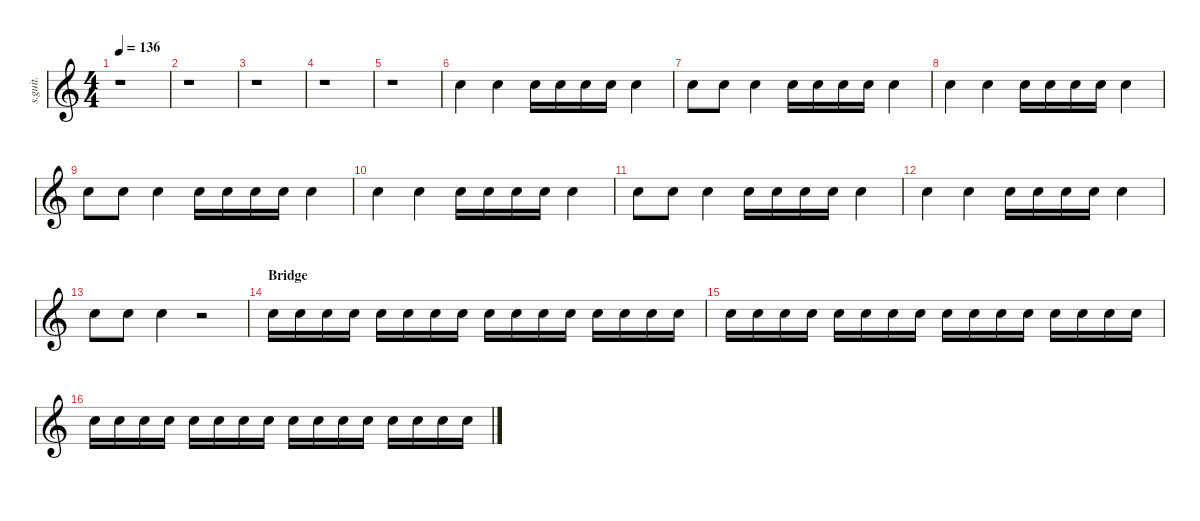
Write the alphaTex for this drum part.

\defaultSystemsLayout 4
\hideDynamics
\bracketExtendMode nobrackets
\track ("Chris Fehn" "s.guit.") {instrument percussion}
\staff {score}
\articulation defaults
\ts (4 4)
\tempo 136
\clef g2
\ks c
r.1{dy fff} |
r.1 |
r.1 |
r.1 |
r.1 |
"Snare (hit) 2".4{lyrics (0 "") lyrics (1 "") lyrics (2 "") lyrics (3 "") lyrics (4 "") dy mf} "Snare (hit) 2".4{lyrics (0 "") lyrics (1 "") lyrics (2 "") lyrics (3 "") lyrics (4 "")} "Snare (hit) 2".16{lyrics (0 "") lyrics (1 "") lyrics (2 "") lyrics (3 "") lyrics (4 "")} "Snare (hit) 2".16{lyrics (0 "") lyrics (1 "") lyrics (2 "") lyrics (3 "") lyrics (4 "")} "Snare (hit) 2".16{lyrics (0 "") lyrics (1 "") lyrics (2 "") lyrics (3 "") lyrics (4 "")} "Snare (hit) 2".16{lyrics (0 "") lyrics (1 "") lyrics (2 "") lyrics (3 "") lyrics (4 "")} "Snare (hit) 2".4{lyrics (0 "") lyrics (1 "") lyrics (2 "") lyrics (3 "") lyrics (4 "")} |
"Snare (hit) 2".8{lyrics (0 "") lyrics (1 "") lyrics (2 "") lyrics (3 "") lyrics (4 "")} "Snare (hit) 2".8{lyrics (0 "") lyrics (1 "") lyrics (2 "") lyrics (3 "") lyrics (4 "")} "Snare (hit) 2".4{lyrics (0 "") lyrics (1 "") lyrics (2 "") lyrics (3 "") lyrics (4 "")} "Snare (hit) 2".16{lyrics (0 "") lyrics (1 "") lyrics (2 "") lyrics (3 "") lyrics (4 "")} "Snare (hit) 2".16{lyrics (0 "") lyrics (1 "") lyrics (2 "") lyrics (3 "") lyrics (4 "")} "Snare (hit) 2".16{lyrics (0 "") lyrics (1 "") lyrics (2 "") lyrics (3 "") lyrics (4 "")} "Snare (hit) 2".16{lyrics (0 "") lyrics (1 "") lyrics (2 "") lyrics (3 "") lyrics (4 "")} "Snare (hit) 2".4{lyrics (0 "") lyrics (1 "") lyrics (2 "") lyrics (3 "") lyrics (4 "")} |
"Snare (hit) 2".4{lyrics (0 "") lyrics (1 "") lyrics (2 "") lyrics (3 "") lyrics (4 "")} "Snare (hit) 2".4{lyrics (0 "") lyrics (1 "") lyrics (2 "") lyrics (3 "") lyrics (4 "")} "Snare (hit) 2".16{lyrics (0 "") lyrics (1 "") lyrics (2 "") lyrics (3 "") lyrics (4 "")} "Snare (hit) 2".16{lyrics (0 "") lyrics (1 "") lyrics (2 "") lyrics (3 "") lyrics (4 "")} "Snare (hit) 2".16{lyrics (0 "") lyrics (1 "") lyrics (2 "") lyrics (3 "") lyrics (4 "")} "Snare (hit) 2".16{lyrics (0 "") lyrics (1 "") lyrics (2 "") lyrics (3 "") lyrics (4 "")} "Snare (hit) 2".4{lyrics (0 "") lyrics (1 "") lyrics (2 "") lyrics (3 "") lyrics (4 "")} |
"Snare (hit) 2".8{lyrics (0 "") lyrics (1 "") lyrics (2 "") lyrics (3 "") lyrics (4 "")} "Snare (hit) 2".8{lyrics (0 "") lyrics (1 "") lyrics (2 "") lyrics (3 "") lyrics (4 "")} "Snare (hit) 2".4{lyrics (0 "") lyrics (1 "") lyrics (2 "") lyrics (3 "") lyrics (4 "")} "Snare (hit) 2".16{lyrics (0 "") lyrics (1 "") lyrics (2 "") lyrics (3 "") lyrics (4 "")} "Snare (hit) 2".16{lyrics (0 "") lyrics (1 "") lyrics (2 "") lyrics (3 "") lyrics (4 "")} "Snare (hit) 2".16{lyrics (0 "") lyrics (1 "") lyrics (2 "") lyrics (3 "") lyrics (4 "")} "Snare (hit) 2".16{lyrics (0 "") lyrics (1 "") lyrics (2 "") lyrics (3 "") lyrics (4 "")} "Snare (hit) 2".4{lyrics (0 "") lyrics (1 "") lyrics (2 "") lyrics (3 "") lyrics (4 "")} |
"Snare (hit) 2".4{lyrics (0 "") lyrics (1 "") lyrics (2 "") lyrics (3 "") lyrics (4 "")} "Snare (hit) 2".4{lyrics (0 "") lyrics (1 "") lyrics (2 "") lyrics (3 "") lyrics (4 "")} "Snare (hit) 2".16{lyrics (0 "") lyrics (1 "") lyrics (2 "") lyrics (3 "") lyrics (4 "")} "Snare (hit) 2".16{lyrics (0 "") lyrics (1 "") lyrics (2 "") lyrics (3 "") lyrics (4 "")} "Snare (hit) 2".16{lyrics (0 "") lyrics (1 "") lyrics (2 "") lyrics (3 "") lyrics (4 "")} "Snare (hit) 2".16{lyrics (0 "") lyrics (1 "") lyrics (2 "") lyrics (3 "") lyrics (4 "")} "Snare (hit) 2".4{lyrics (0 "") lyrics (1 "") lyrics (2 "") lyrics (3 "") lyrics (4 "")} |
"Snare (hit) 2".8{lyrics (0 "") lyrics (1 "") lyrics (2 "") lyrics (3 "") lyrics (4 "")} "Snare (hit) 2".8{lyrics (0 "") lyrics (1 "") lyrics (2 "") lyrics (3 "") lyrics (4 "")} "Snare (hit) 2".4{lyrics (0 "") lyrics (1 "") lyrics (2 "") lyrics (3 "") lyrics (4 "")} "Snare (hit) 2".16{lyrics (0 "") lyrics (1 "") lyrics (2 "") lyrics (3 "") lyrics (4 "")} "Snare (hit) 2".16{lyrics (0 "") lyrics (1 "") lyrics (2 "") lyrics (3 "") lyrics (4 "")} "Snare (hit) 2".16{lyrics (0 "") lyrics (1 "") lyrics (2 "") lyrics (3 "") lyrics (4 "")} "Snare (hit) 2".16{lyrics (0 "") lyrics (1 "") lyrics (2 "") lyrics (3 "") lyrics (4 "")} "Snare (hit) 2".4{lyrics (0 "") lyrics (1 "") lyrics (2 "") lyrics (3 "") lyrics (4 "")} |
"Snare (hit) 2".4{lyrics (0 "") lyrics (1 "") lyrics (2 "") lyrics (3 "") lyrics (4 "")} "Snare (hit) 2".4{lyrics (0 "") lyrics (1 "") lyrics (2 "") lyrics (3 "") lyrics (4 "")} "Snare (hit) 2".16{lyrics (0 "") lyrics (1 "") lyrics (2 "") lyrics (3 "") lyrics (4 "")} "Snare (hit) 2".16{lyrics (0 "") lyrics (1 "") lyrics (2 "") lyrics (3 "") lyrics (4 "")} "Snare (hit) 2".16{lyrics (0 "") lyrics (1 "") lyrics (2 "") lyrics (3 "") lyrics (4 "")} "Snare (hit) 2".16{lyrics (0 "") lyrics (1 "") lyrics (2 "") lyrics (3 "") lyrics (4 "")} "Snare (hit) 2".4{lyrics (0 "") lyrics (1 "") lyrics (2 "") lyrics (3 "") lyrics (4 "")} |
"Snare (hit) 2".8{lyrics (0 "") lyrics (1 "") lyrics (2 "") lyrics (3 "") lyrics (4 "")} "Snare (hit) 2".8{lyrics (0 "") lyrics (1 "") lyrics (2 "") lyrics (3 "") lyrics (4 "")} "Snare (hit) 2".4{lyrics (0 "") lyrics (1 "") lyrics (2 "") lyrics (3 "") lyrics (4 "")} r.2 |
\section ("" "Bridge")
"Snare (hit) 2".16{lyrics (0 "") lyrics (1 "") lyrics (2 "") lyrics (3 "") lyrics (4 "") dy mp} "Snare (hit) 2".16{lyrics (0 "") lyrics (1 "") lyrics (2 "") lyrics (3 "") lyrics (4 "")} "Snare (hit) 2".16{lyrics (0 "") lyrics (1 "") lyrics (2 "") lyrics (3 "") lyrics (4 "")} "Snare (hit) 2".16{lyrics (0 "") lyrics (1 "") lyrics (2 "") lyrics (3 "") lyrics (4 "")} "Snare (hit) 2".16{lyrics (0 "") lyrics (1 "") lyrics (2 "") lyrics (3 "") lyrics (4 "")} "Snare (hit) 2".16{lyrics (0 "") lyrics (1 "") lyrics (2 "") lyrics (3 "") lyrics (4 "")} "Snare (hit) 2".16{lyrics (0 "") lyrics (1 "") lyrics (2 "") lyrics (3 "") lyrics (4 "")} "Snare (hit) 2".16{lyrics (0 "") lyrics (1 "") lyrics (2 "") lyrics (3 "") lyrics (4 "")} "Snare (hit) 2".16{lyrics (0 "") lyrics (1 "") lyrics (2 "") lyrics (3 "") lyrics (4 "")} "Snare (hit) 2".16{lyrics (0 "") lyrics (1 "") lyrics (2 "") lyrics (3 "") lyrics (4 "")} "Snare (hit) 2".16{lyrics (0 "") lyrics (1 "") lyrics (2 "") lyrics (3 "") lyrics (4 "")} "Snare (hit) 2".16{lyrics (0 "") lyrics (1 "") lyrics (2 "") lyrics (3 "") lyrics (4 "")} "Snare (hit) 2".16{lyrics (0 "") lyrics (1 "") lyrics (2 "") lyrics (3 "") lyrics (4 "")} "Snare (hit) 2".16{lyrics (0 "") lyrics (1 "") lyrics (2 "") lyrics (3 "") lyrics (4 "")} "Snare (hit) 2".16{lyrics (0 "") lyrics (1 "") lyrics (2 "") lyrics (3 "") lyrics (4 "")} "Snare (hit) 2".16{lyrics (0 "") lyrics (1 "") lyrics (2 "") lyrics (3 "") lyrics (4 "")} |
"Snare (hit) 2".16{lyrics (0 "") lyrics (1 "") lyrics (2 "") lyrics (3 "") lyrics (4 "")} "Snare (hit) 2".16{lyrics (0 "") lyrics (1 "") lyrics (2 "") lyrics (3 "") lyrics (4 "")} "Snare (hit) 2".16{lyrics (0 "") lyrics (1 "") lyrics (2 "") lyrics (3 "") lyrics (4 "")} "Snare (hit) 2".16{lyrics (0 "") lyrics (1 "") lyrics (2 "") lyrics (3 "") lyrics (4 "")} "Snare (hit) 2".16{lyrics (0 "") lyrics (1 "") lyrics (2 "") lyrics (3 "") lyrics (4 "")} "Snare (hit) 2".16{lyrics (0 "") lyrics (1 "") lyrics (2 "") lyrics (3 "") lyrics (4 "")} "Snare (hit) 2".16{lyrics (0 "") lyrics (1 "") lyrics (2 "") lyrics (3 "") lyrics (4 "")} "Snare (hit) 2".16{lyrics (0 "") lyrics (1 "") lyrics (2 "") lyrics (3 "") lyrics (4 "")} "Snare (hit) 2".16{lyrics (0 "") lyrics (1 "") lyrics (2 "") lyrics (3 "") lyrics (4 "")} "Snare (hit) 2".16{lyrics (0 "") lyrics (1 "") lyrics (2 "") lyrics (3 "") lyrics (4 "")} "Snare (hit) 2".16{lyrics (0 "") lyrics (1 "") lyrics (2 "") lyrics (3 "") lyrics (4 "")} "Snare (hit) 2".16{lyrics (0 "") lyrics (1 "") lyrics (2 "") lyrics (3 "") lyrics (4 "")} "Snare (hit) 2".16{lyrics (0 "") lyrics (1 "") lyrics (2 "") lyrics (3 "") lyrics (4 "")} "Snare (hit) 2".16{lyrics (0 "") lyrics (1 "") lyrics (2 "") lyrics (3 "") lyrics (4 "")} "Snare (hit) 2".16{lyrics (0 "") lyrics (1 "") lyrics (2 "") lyrics (3 "") lyrics (4 "")} "Snare (hit) 2".16{lyrics (0 "") lyrics (1 "") lyrics (2 "") lyrics (3 "") lyrics (4 "")} |
"Snare (hit) 2".16{lyrics (0 "") lyrics (1 "") lyrics (2 "") lyrics (3 "") lyrics (4 "")} "Snare (hit) 2".16{lyrics (0 "") lyrics (1 "") lyrics (2 "") lyrics (3 "") lyrics (4 "")} "Snare (hit) 2".16{lyrics (0 "") lyrics (1 "") lyrics (2 "") lyrics (3 "") lyrics (4 "")} "Snare (hit) 2".16{lyrics (0 "") lyrics (1 "") lyrics (2 "") lyrics (3 "") lyrics (4 "")} "Snare (hit) 2".16{lyrics (0 "") lyrics (1 "") lyrics (2 "") lyrics (3 "") lyrics (4 "")} "Snare (hit) 2".16{lyrics (0 "") lyrics (1 "") lyrics (2 "") lyrics (3 "") lyrics (4 "")} "Snare (hit) 2".16{lyrics (0 "") lyrics (1 "") lyrics (2 "") lyrics (3 "") lyrics (4 "")} "Snare (hit) 2".16{lyrics (0 "") lyrics (1 "") lyrics (2 "") lyrics (3 "") lyrics (4 "")} "Snare (hit) 2".16{lyrics (0 "") lyrics (1 "") lyrics (2 "") lyrics (3 "") lyrics (4 "")} "Snare (hit) 2".16{lyrics (0 "") lyrics (1 "") lyrics (2 "") lyrics (3 "") lyrics (4 "")} "Snare (hit) 2".16{lyrics (0 "") lyrics (1 "") lyrics (2 "") lyrics (3 "") lyrics (4 "")} "Snare (hit) 2".16{lyrics (0 "") lyrics (1 "") lyrics (2 "") lyrics (3 "") lyrics (4 "")} "Snare (hit) 2".16{lyrics (0 "") lyrics (1 "") lyrics (2 "") lyrics (3 "") lyrics (4 "")} "Snare (hit) 2".16{lyrics (0 "") lyrics (1 "") lyrics (2 "") lyrics (3 "") lyrics (4 "")} "Snare (hit) 2".16{lyrics (0 "") lyrics (1 "") lyrics (2 "") lyrics (3 "") lyrics (4 "")} "Snare (hit) 2".16{lyrics (0 "") lyrics (1 "") lyrics (2 "") lyrics (3 "") lyrics (4 "")}
